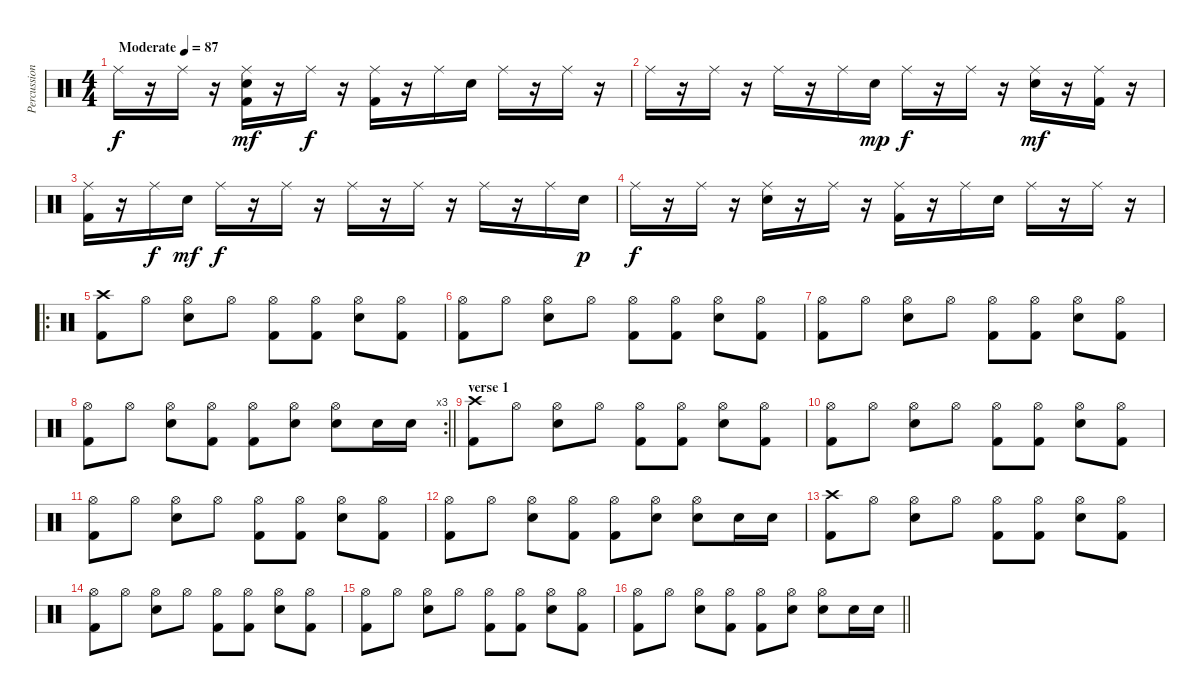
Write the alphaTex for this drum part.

\track ("Percussion" "Percussion") {instrument percussion}
\staff {score}
\articulation defaults
\ts (4 4)
\tempo (87 "Moderate")
\clef neutral
\ks c "Ride (middle)".16{dy f}
r.16 "Ride (middle)".16 r.16 ("Ride (middle)" "Electric Snare (hit)" "Kick (hit) 2").16{dy mf} r.16 "Ride (middle)".16{dy f} r.16 ("Ride (middle)" "Kick (hit) 2").16 r.16 "Ride (middle)".16 "Electric Snare (hit)".16 "Ride (middle)".16 r.16 "Ride (middle)".16 r.16 |
"Ride (middle)".16 r.16 "Ride (middle)".16 r.16 "Ride (middle)".16 r.16 "Ride (middle)".16 "Electric Snare (hit)".16{dy mp} "Ride (middle)".16{dy f} r.16 "Ride (middle)".16 r.16 ("Ride (middle)" "Electric Snare (hit)").16{dy mf} r.16 ("Ride (middle)" "Kick (hit) 2").16 r.16 |
("Ride (middle)" "Kick (hit) 2").16 r.16 "Ride (middle)".16{dy f} "Electric Snare (hit)".16{dy mf} "Ride (middle)".16{dy f} r.16 "Ride (middle)".16 r.16 "Ride (middle)".16 r.16 "Ride (middle)".16 r.16 "Ride (middle)".16 r.16 "Ride (middle)".16 "Electric Snare (hit)".16{dy p} |
"Ride (middle)".16{dy f} r.16 "Ride (middle)".16 r.16 ("Ride (middle)" "Electric Snare (hit)").16 r.16 "Ride (middle)".16 r.16 ("Ride (middle)" "Kick (hit) 2").16 r.16 "Ride (middle)".16 "Electric Snare (hit)".16 "Ride (middle)".16 r.16 "Ride (middle)".16 r.16 |
\ro
("Crash high (hit)" "Kick (hit) 2").8 "Hi-Hat (open)".8 ("Hi-Hat (open)" "Snare (hit) 2").8 "Hi-Hat (open)".8 ("Hi-Hat (open)" "Kick (hit) 2").8 ("Hi-Hat (open)" "Kick (hit) 2").8 ("Hi-Hat (open)" "Snare (hit) 2").8 ("Hi-Hat (open)" "Kick (hit) 2").8 |
("Hi-Hat (open)" "Kick (hit) 2").8 "Hi-Hat (open)".8 ("Hi-Hat (open)" "Snare (hit) 2").8 "Hi-Hat (open)".8 ("Hi-Hat (open)" "Kick (hit) 2").8 ("Hi-Hat (open)" "Kick (hit) 2").8 ("Hi-Hat (open)" "Snare (hit) 2").8 ("Hi-Hat (open)" "Kick (hit) 2").8 |
("Hi-Hat (open)" "Kick (hit) 2").8 "Hi-Hat (open)".8 ("Hi-Hat (open)" "Snare (hit) 2").8 "Hi-Hat (open)".8 ("Hi-Hat (open)" "Kick (hit) 2").8 ("Hi-Hat (open)" "Kick (hit) 2").8 ("Hi-Hat (open)" "Snare (hit) 2").8 ("Hi-Hat (open)" "Kick (hit) 2").8 |
\rc 3
\barLineRight lightlight
("Hi-Hat (open)" "Kick (hit) 2").8 "Hi-Hat (open)".8 ("Hi-Hat (open)" "Snare (hit) 2").8 ("Hi-Hat (open)" "Kick (hit) 2").8 ("Hi-Hat (open)" "Kick (hit) 2").8 ("Hi-Hat (open)" "Snare (hit) 2").8 ("Hi-Hat (open)" "Snare (hit) 2").8 "Snare (hit) 2".16 "Snare (hit) 2".16 |
\section ("" "verse 1")
("Crash high (hit)" "Kick (hit) 2").8 "Hi-Hat (open)".8 ("Hi-Hat (open)" "Snare (hit) 2").8 "Hi-Hat (open)".8 ("Hi-Hat (open)" "Kick (hit) 2").8 ("Hi-Hat (open)" "Kick (hit) 2").8 ("Hi-Hat (open)" "Snare (hit) 2").8 ("Hi-Hat (open)" "Kick (hit) 2").8 |
("Hi-Hat (open)" "Kick (hit) 2").8 "Hi-Hat (open)".8 ("Hi-Hat (open)" "Snare (hit) 2").8 "Hi-Hat (open)".8 ("Hi-Hat (open)" "Kick (hit) 2").8 ("Hi-Hat (open)" "Kick (hit) 2").8 ("Hi-Hat (open)" "Snare (hit) 2").8 ("Hi-Hat (open)" "Kick (hit) 2").8 |
("Hi-Hat (open)" "Kick (hit) 2").8 "Hi-Hat (open)".8 ("Hi-Hat (open)" "Snare (hit) 2").8 "Hi-Hat (open)".8 ("Hi-Hat (open)" "Kick (hit) 2").8 ("Hi-Hat (open)" "Kick (hit) 2").8 ("Hi-Hat (open)" "Snare (hit) 2").8 ("Hi-Hat (open)" "Kick (hit) 2").8 |
("Hi-Hat (open)" "Kick (hit) 2").8 "Hi-Hat (open)".8 ("Hi-Hat (open)" "Snare (hit) 2").8 ("Hi-Hat (open)" "Kick (hit) 2").8 ("Hi-Hat (open)" "Kick (hit) 2").8 ("Hi-Hat (open)" "Snare (hit) 2").8 ("Hi-Hat (open)" "Snare (hit) 2").8 "Snare (hit) 2".16 "Snare (hit) 2".16 |
("Crash high (hit)" "Kick (hit) 2").8 "Hi-Hat (open)".8 ("Hi-Hat (open)" "Snare (hit) 2").8 "Hi-Hat (open)".8 ("Hi-Hat (open)" "Kick (hit) 2").8 ("Hi-Hat (open)" "Kick (hit) 2").8 ("Hi-Hat (open)" "Snare (hit) 2").8 ("Hi-Hat (open)" "Kick (hit) 2").8 |
("Hi-Hat (open)" "Kick (hit) 2").8 "Hi-Hat (open)".8 ("Hi-Hat (open)" "Snare (hit) 2").8 "Hi-Hat (open)".8 ("Hi-Hat (open)" "Kick (hit) 2").8 ("Hi-Hat (open)" "Kick (hit) 2").8 ("Hi-Hat (open)" "Snare (hit) 2").8 ("Hi-Hat (open)" "Kick (hit) 2").8 |
("Hi-Hat (open)" "Kick (hit) 2").8 "Hi-Hat (open)".8 ("Hi-Hat (open)" "Snare (hit) 2").8 "Hi-Hat (open)".8 ("Hi-Hat (open)" "Kick (hit) 2").8 ("Hi-Hat (open)" "Kick (hit) 2").8 ("Hi-Hat (open)" "Snare (hit) 2").8 ("Hi-Hat (open)" "Kick (hit) 2").8 |
\barLineRight lightlight
("Hi-Hat (open)" "Kick (hit) 2").8 "Hi-Hat (open)".8 ("Hi-Hat (open)" "Snare (hit) 2").8 ("Hi-Hat (open)" "Kick (hit) 2").8 ("Hi-Hat (open)" "Kick (hit) 2").8 ("Hi-Hat (open)" "Snare (hit) 2").8 ("Hi-Hat (open)" "Snare (hit) 2").8 "Snare (hit) 2".16 "Snare (hit) 2".16
